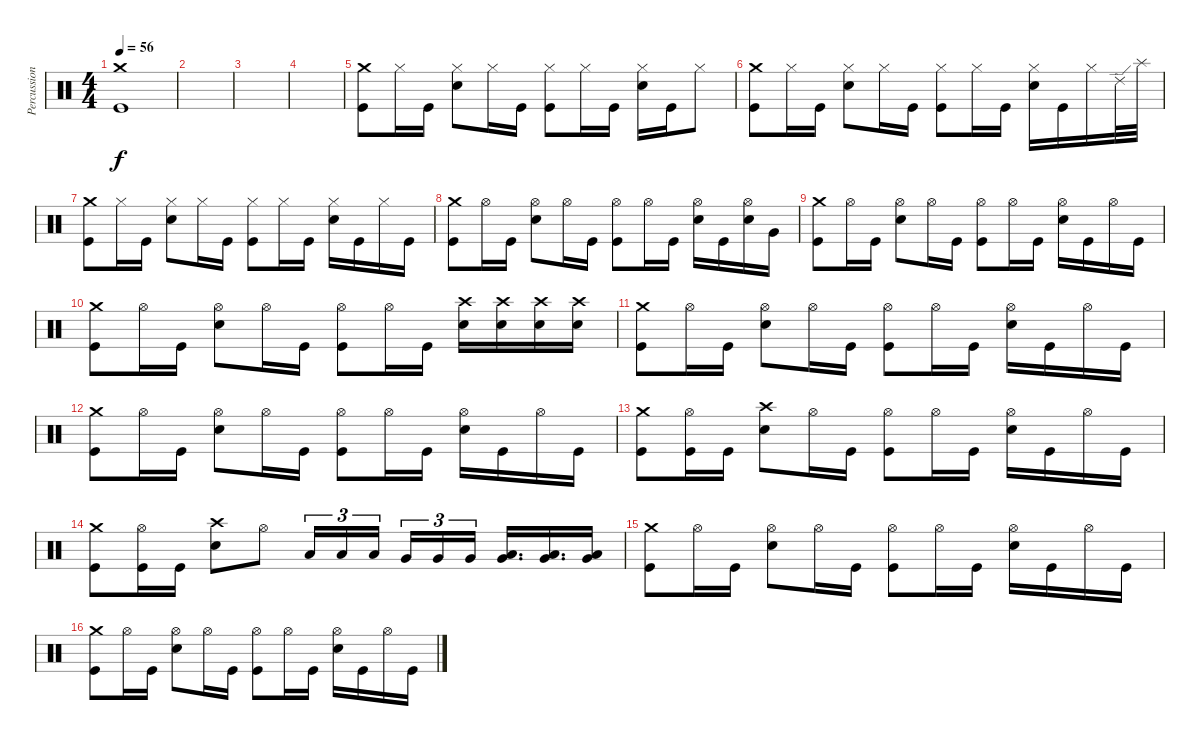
\track ("Percussion" "Percussion") {instrument percussion}
\staff {score}
\articulation defaults
\ts (4 4)
\tempo 56
\clef neutral
\ks c
("Crash medium (hit)" "Kick (hit)").1{dy f} |
|
|
|
("Crash medium (hit)" "Kick (hit)").8 "Hi-Hat (closed)".16 "Kick (hit)".16 ("Hi-Hat (closed)" "Electric Snare (hit)").8 "Hi-Hat (closed)".16 "Kick (hit)".16 ("Hi-Hat (closed)" "Kick (hit)").8 "Hi-Hat (closed)".16 "Kick (hit)".16 ("Hi-Hat (closed)" "Electric Snare (hit)").16 "Kick (hit)".16 "Hi-Hat (closed)".8 |
("Crash medium (hit)" "Kick (hit)").8 "Hi-Hat (closed)".16 "Kick (hit)".16 ("Hi-Hat (closed)" "Electric Snare (hit)").8 "Hi-Hat (closed)".16 "Kick (hit)".16 ("Hi-Hat (closed)" "Kick (hit)").8 "Hi-Hat (closed)".16 "Kick (hit)".16 ("Hi-Hat (closed)" "Electric Snare (hit)").16 "Kick (hit)".16 "Hi-Hat (closed)".16 "Ride (edge) 2".32 "Splash (hit)".32 |
("Crash medium (hit)" "Kick (hit)").8 "Hi-Hat (closed)".16 "Kick (hit)".16 ("Hi-Hat (closed)" "Electric Snare (hit)").8 "Hi-Hat (closed)".16 "Kick (hit)".16 ("Hi-Hat (closed)" "Kick (hit)").8 "Hi-Hat (closed)".16 "Kick (hit)".16 ("Hi-Hat (closed)" "Electric Snare (hit)").16 "Kick (hit)".16 "Hi-Hat (closed)".16 "Kick (hit)".16 |
("Crash medium (hit)" "Kick (hit)").8 "Hi-Hat (open)".16 "Kick (hit)".16 ("Hi-Hat (open)" "Electric Snare (hit)").8 "Hi-Hat (open)".16 "Kick (hit)".16 ("Hi-Hat (open)" "Kick (hit)").8 "Hi-Hat (open)".16 "Kick (hit)".16 ("Hi-Hat (open)" "Electric Snare (hit)").16 "Kick (hit)".16 ("Hi-Hat (open)" "Electric Snare (hit)").16 "Very Low Tom (hit)".16 |
("Crash medium (hit)" "Kick (hit)").8 "Hi-Hat (open)".16 "Kick (hit)".16 ("Hi-Hat (open)" "Electric Snare (hit)").8 "Hi-Hat (open)".16 "Kick (hit)".16 ("Hi-Hat (open)" "Kick (hit)").8 "Hi-Hat (open)".16 "Kick (hit)".16 ("Hi-Hat (open)" "Electric Snare (hit)").16 "Kick (hit)".16 "Hi-Hat (open)".16 "Kick (hit)".16 |
("Crash medium (hit)" "Kick (hit)").8 "Hi-Hat (open)".16 "Kick (hit)".16 ("Hi-Hat (open)" "Electric Snare (hit)").8 "Hi-Hat (open)".16 "Kick (hit)".16 ("Hi-Hat (open)" "Kick (hit)").8 "Hi-Hat (open)".16 "Kick (hit)".16 ("Crash high (hit)" "Electric Snare (hit)").16 ("Crash high (hit)" "Electric Snare (hit)").16 ("Crash high (hit)" "Electric Snare (hit)").16 ("Crash high (hit)" "Electric Snare (hit)").16 |
("Crash medium (hit)" "Kick (hit)").8 "Hi-Hat (open)".16 "Kick (hit)".16 ("Hi-Hat (open)" "Electric Snare (hit)").8 "Hi-Hat (open)".16 "Kick (hit)".16 ("Hi-Hat (open)" "Kick (hit)").8 "Hi-Hat (open)".16 "Kick (hit)".16 ("Hi-Hat (open)" "Electric Snare (hit)").16 "Kick (hit)".16 "Hi-Hat (open)".16 "Kick (hit)".16 |
("Crash medium (hit)" "Kick (hit)").8 "Hi-Hat (open)".16 "Kick (hit)".16 ("Hi-Hat (open)" "Electric Snare (hit)").8 "Hi-Hat (open)".16 "Kick (hit)".16 ("Hi-Hat (open)" "Kick (hit)").8 "Hi-Hat (open)".16 "Kick (hit)".16 ("Hi-Hat (open)" "Electric Snare (hit)").16 "Kick (hit)".16 "Hi-Hat (open)".16 "Kick (hit)".16 |
("Crash medium (hit)" "Kick (hit)").8 ("Hi-Hat (open)" "Kick (hit)").16 "Kick (hit)".16 ("Crash high (hit)" "Electric Snare (hit)").8 "Hi-Hat (open)".16 "Kick (hit)".16 ("Hi-Hat (open)" "Kick (hit)").8 "Hi-Hat (open)".16 "Kick (hit)".16 ("Hi-Hat (open)" "Electric Snare (hit)").16 "Kick (hit)".16 "Hi-Hat (open)".16 "Kick (hit)".16 |
("Crash medium (hit)" "Kick (hit)").8 ("Hi-Hat (open)" "Kick (hit)").16 "Kick (hit)".16 ("Crash high (hit)" "Electric Snare (hit)").8 "Hi-Hat (open)".8 "Low Tom (hit)".16{tu (3 2)} "Low Tom (hit)".16{tu (3 2)} "Low Tom (hit)".16{tu (3 2) beam splitsecondary} "Very Low Tom (hit)".16{tu (3 2)} "Very Low Tom (hit)".16{tu (3 2)} "Very Low Tom (hit)".16{tu (3 2)} ("Very Low Tom (hit)" "Low Floor Tom (hit)").16{d} ("Very Low Tom (hit)" "Low Floor Tom (hit)").16{d} ("Very Low Tom (hit)" "Low Floor Tom (hit)").16 |
("Crash medium (hit)" "Kick (hit)").8 "Hi-Hat (open)".16 "Kick (hit)".16 ("Hi-Hat (open)" "Electric Snare (hit)").8 "Hi-Hat (open)".16 "Kick (hit)".16 ("Hi-Hat (open)" "Kick (hit)").8 "Hi-Hat (open)".16 "Kick (hit)".16 ("Hi-Hat (open)" "Electric Snare (hit)").16 "Kick (hit)".16 "Hi-Hat (open)".16 "Kick (hit)".16 |
("Crash medium (hit)" "Kick (hit)").8 "Hi-Hat (open)".16 "Kick (hit)".16 ("Hi-Hat (open)" "Electric Snare (hit)").8 "Hi-Hat (open)".16 "Kick (hit)".16 ("Hi-Hat (open)" "Kick (hit)").8 "Hi-Hat (open)".16 "Kick (hit)".16 ("Hi-Hat (open)" "Electric Snare (hit)").16 "Kick (hit)".16 "Hi-Hat (open)".16 "Kick (hit)".16
